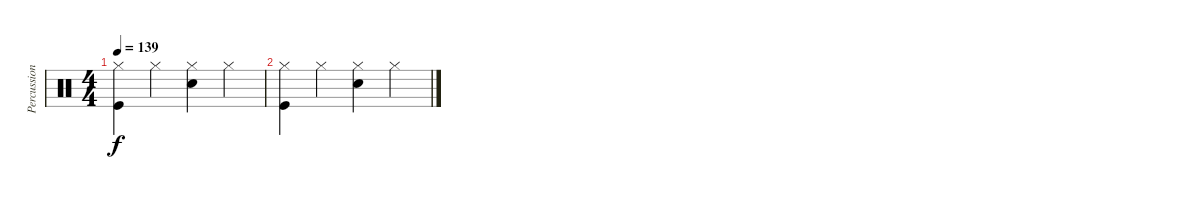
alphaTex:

\track ("Percussions" "Percussion") {instrument percussion}
\staff {score}
\articulation defaults
\ts (4 4)
\tempo 139
\clef neutral
\ks c
("Hi-Hat (closed)" "Kick (hit)").4{dy f} "Hi-Hat (closed)".4 ("Hi-Hat (closed)" "Snare (hit) 2").4 "Hi-Hat (closed)".4 |
("Hi-Hat (closed)" "Kick (hit)").4 "Hi-Hat (closed)".4 ("Hi-Hat (closed)" "Snare (hit) 2").4 "Hi-Hat (closed)".4
